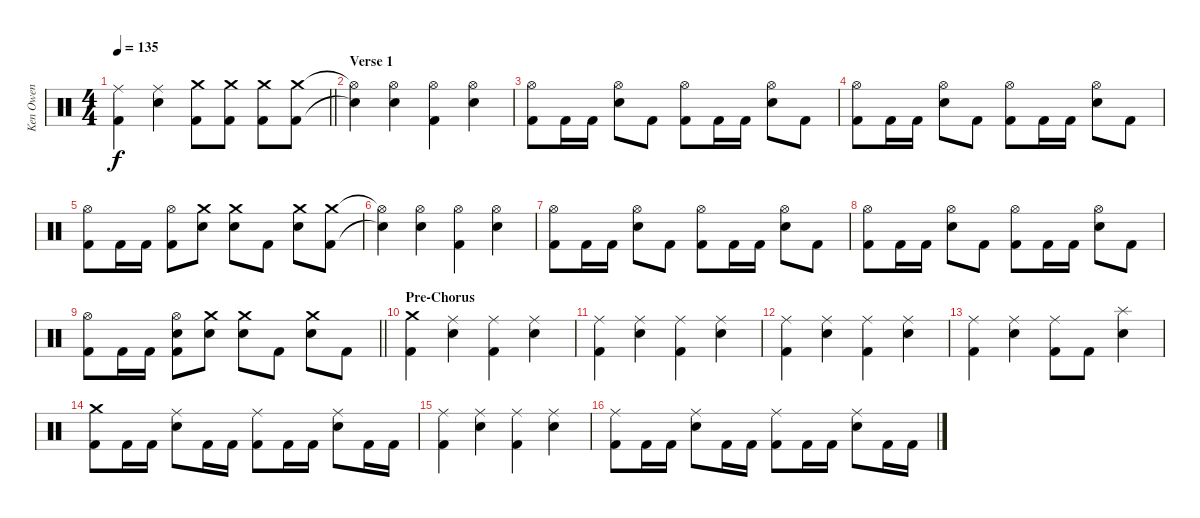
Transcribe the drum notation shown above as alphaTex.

\track ("Ken Owen" "Ken Owen") {instrument percussion}
\staff {score}
\articulation defaults
\ts (4 4)
\tempo 135
\clef neutral
\barLineRight lightlight
\ks c
("Ride (middle)" "Kick (hit) 2").4{dy f} ("Ride (middle)" "Electric Snare (hit)").4 ("Crash medium (hit)" "Kick (hit) 2").8 ("Crash medium (hit)" "Kick (hit) 2").8 ("Crash medium (hit)" "Kick (hit) 2").8 ("Crash medium (hit)" "Kick (hit) 2").8 |
\section ("" "Verse 1")
("Hi-Hat (open)"{t} "Snare (hit)"{t}).4 ("Hi-Hat (open)" "Electric Snare (hit)").4 ("Hi-Hat (open)" "Kick (hit) 2").4 ("Hi-Hat (open)" "Electric Snare (hit)").4 |
("Hi-Hat (open)" "Kick (hit) 2").8 "Kick (hit) 2".16 "Kick (hit) 2".16 ("Hi-Hat (open)" "Electric Snare (hit)").8 "Kick (hit) 2".8 ("Hi-Hat (open)" "Kick (hit) 2").8 "Kick (hit) 2".16 "Kick (hit) 2".16 ("Hi-Hat (open)" "Electric Snare (hit)").8 "Kick (hit) 2".8 |
("Hi-Hat (open)" "Kick (hit) 2").8 "Kick (hit) 2".16 "Kick (hit) 2".16 ("Hi-Hat (open)" "Electric Snare (hit)").8 "Kick (hit) 2".8 ("Hi-Hat (open)" "Kick (hit) 2").8 "Kick (hit) 2".16 "Kick (hit) 2".16 ("Hi-Hat (open)" "Electric Snare (hit)").8 "Kick (hit) 2".8 |
("Hi-Hat (open)" "Kick (hit) 2").8 "Kick (hit) 2".16 "Kick (hit) 2".16 ("Hi-Hat (open)" "Kick (hit) 2").8 ("Crash medium (hit)" "Electric Snare (hit)").8 ("Crash medium (hit)" "Electric Snare (hit)").8 "Kick (hit) 2".8 ("Crash medium (hit)" "Electric Snare (hit)").8 ("Crash medium (hit)" "Kick (hit) 2").8 |
("Hi-Hat (open)"{t} "Snare (hit)"{t}).4 ("Hi-Hat (open)" "Electric Snare (hit)").4 ("Hi-Hat (open)" "Kick (hit) 2").4 ("Hi-Hat (open)" "Electric Snare (hit)").4 |
("Hi-Hat (open)" "Kick (hit) 2").8 "Kick (hit) 2".16 "Kick (hit) 2".16 ("Hi-Hat (open)" "Electric Snare (hit)").8 "Kick (hit) 2".8 ("Hi-Hat (open)" "Kick (hit) 2").8 "Kick (hit) 2".16 "Kick (hit) 2".16 ("Hi-Hat (open)" "Electric Snare (hit)").8 "Kick (hit) 2".8 |
("Hi-Hat (open)" "Kick (hit) 2").8 "Kick (hit) 2".16 "Kick (hit) 2".16 ("Hi-Hat (open)" "Electric Snare (hit)").8 "Kick (hit) 2".8 ("Hi-Hat (open)" "Kick (hit) 2").8 "Kick (hit) 2".16 "Kick (hit) 2".16 ("Hi-Hat (open)" "Electric Snare (hit)").8 "Kick (hit) 2".8 |
\barLineRight lightlight
("Hi-Hat (open)" "Kick (hit) 2").8 "Kick (hit) 2".16 "Kick (hit) 2".16 ("Hi-Hat (open)" "Electric Snare (hit)" "Kick (hit) 2").8 ("Crash medium (hit)" "Electric Snare (hit)").8 ("Crash medium (hit)" "Electric Snare (hit)").8 "Kick (hit) 2".8 ("Crash medium (hit)" "Electric Snare (hit)").8 "Kick (hit) 2".8 |
\section ("" "Pre-Chorus")
("Crash medium (hit)" "Kick (hit) 2").4 ("Ride (middle)" "Electric Snare (hit)").4 ("Ride (middle)" "Kick (hit) 2").4 ("Ride (middle)" "Electric Snare (hit)").4 |
("Ride (middle)" "Kick (hit) 2").4 ("Ride (middle)" "Electric Snare (hit)").4 ("Ride (middle)" "Kick (hit) 2").4 ("Ride (middle)" "Electric Snare (hit)").4 |
("Ride (middle)" "Kick (hit) 2").4 ("Ride (middle)" "Electric Snare (hit)").4 ("Ride (middle)" "Kick (hit) 2").4 ("Ride (middle)" "Electric Snare (hit)").4 |
("Ride (middle)" "Kick (hit) 2").4 ("Ride (middle)" "Electric Snare (hit)").4 ("Ride (middle)" "Kick (hit) 2").8 "Kick (hit) 2".8 ("Splash (hit)" "Electric Snare (hit)").4 |
("Crash medium (hit)" "Kick (hit) 2").8 "Kick (hit) 2".16 "Kick (hit) 2".16 ("Ride (middle)" "Electric Snare (hit)").8 "Kick (hit) 2".16 "Kick (hit) 2".16 ("Ride (middle)" "Kick (hit) 2").8 "Kick (hit) 2".16 "Kick (hit) 2".16 ("Ride (middle)" "Electric Snare (hit)").8 "Kick (hit) 2".16 "Kick (hit) 2".16 |
("Ride (middle)" "Kick (hit) 2").4 ("Ride (middle)" "Electric Snare (hit)").4 ("Ride (middle)" "Kick (hit) 2").4 ("Ride (middle)" "Electric Snare (hit)").4 |
("Ride (middle)" "Kick (hit) 2").8 "Kick (hit) 2".16 "Kick (hit) 2".16 ("Ride (middle)" "Electric Snare (hit)").8 "Kick (hit) 2".16 "Kick (hit) 2".16 ("Ride (middle)" "Kick (hit) 2").8 "Kick (hit) 2".16 "Kick (hit) 2".16 ("Ride (middle)" "Electric Snare (hit)").8 "Kick (hit) 2".16 "Kick (hit) 2".16
